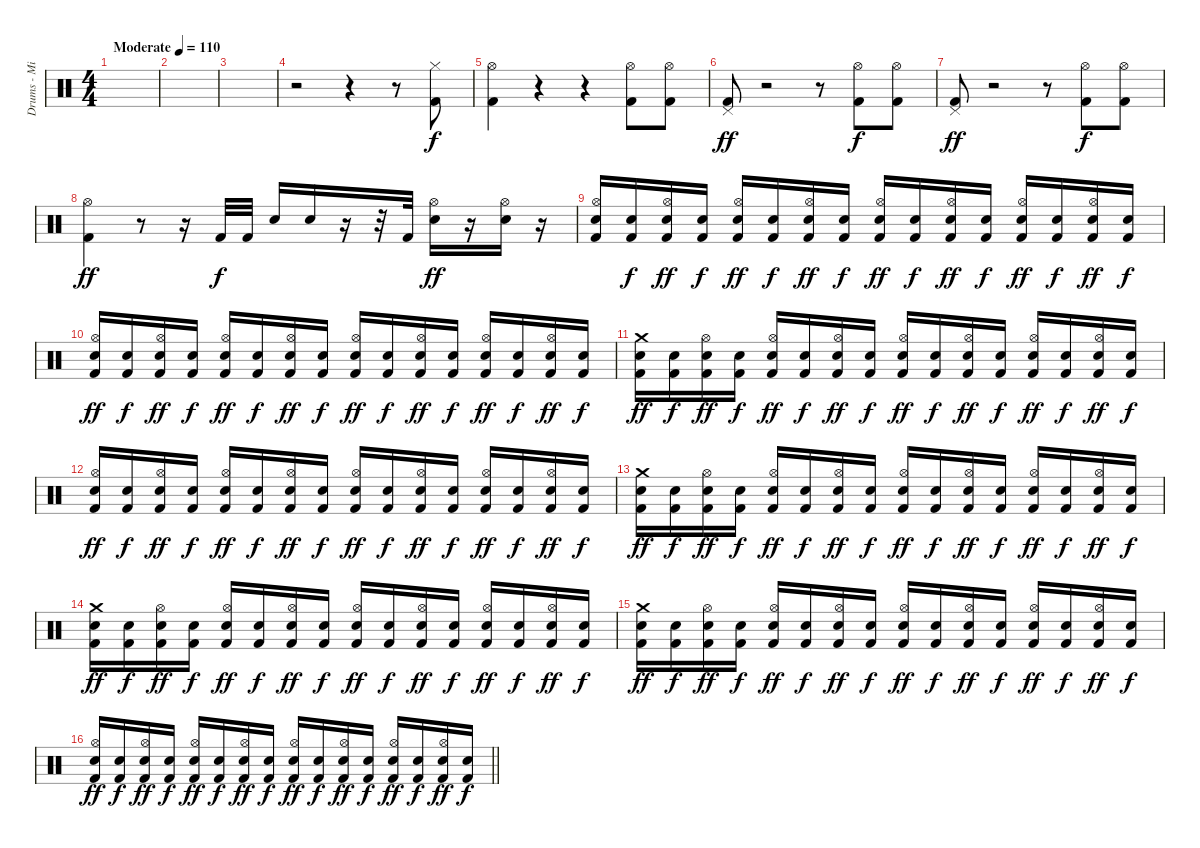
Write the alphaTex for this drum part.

\track ("Drums - Mikko" "Drums - Mi") {instrument percussion}
\staff {score}
\articulation defaults
\ts (4 4)
\tempo (110 "Moderate")
\clef neutral
\ks c
|
|
|
r.2 r.4 r.8 ("Hi-Hat (closed)" "Kick (hit) 2").8 |
("Hi-Hat (open)" "Kick (hit) 2").4{dy f} r.4 r.4 ("Hi-Hat (open)" "Kick (hit) 2").8 ("Hi-Hat (open)" "Kick (hit) 2").8 |
("Pedal Hi-Hat (hit)" "Kick (hit) 2").8{dy ff} r.2 r.8 ("Hi-Hat (open)" "Kick (hit) 2").8{dy f} ("Hi-Hat (open)" "Kick (hit) 2").8 |
("Pedal Hi-Hat (hit)" "Kick (hit) 2").8{dy ff} r.2 r.8 ("Hi-Hat (open)" "Kick (hit) 2").8{dy f} ("Hi-Hat (open)" "Kick (hit) 2").8 |
("Hi-Hat (open)" "Kick (hit) 2").4{dy ff} r.8 r.16 "Kick (hit) 2".32{dy f} "Kick (hit) 2".32 "Snare (hit) 2".16 "Snare (hit) 2".16 r.16 r.32 "Kick (hit) 2".32 ("Hi-Hat (open)" "Snare (hit) 2").16{dy ff} r.16 ("Hi-Hat (open)" "Snare (hit) 2").16 r.16 |
("Hi-Hat (open)" "Snare (hit) 2" "Kick (hit) 2").16{volume 11} ("Snare (hit) 2" "Kick (hit) 2").16{dy f} ("Hi-Hat (open)" "Snare (hit) 2" "Kick (hit) 2").16{dy ff} ("Snare (hit) 2" "Kick (hit) 2").16{dy f} ("Hi-Hat (open)" "Snare (hit) 2" "Kick (hit) 2").16{dy ff} ("Snare (hit) 2" "Kick (hit) 2").16{dy f} ("Hi-Hat (open)" "Snare (hit) 2" "Kick (hit) 2").16{dy ff} ("Snare (hit) 2" "Kick (hit) 2").16{dy f} ("Hi-Hat (open)" "Snare (hit) 2" "Kick (hit) 2").16{dy ff} ("Snare (hit) 2" "Kick (hit) 2").16{dy f} ("Hi-Hat (open)" "Snare (hit) 2" "Kick (hit) 2").16{dy ff} ("Snare (hit) 2" "Kick (hit) 2").16{dy f} ("Hi-Hat (open)" "Snare (hit) 2" "Kick (hit) 2").16{dy ff} ("Snare (hit) 2" "Kick (hit) 2").16{dy f} ("Hi-Hat (open)" "Snare (hit) 2" "Kick (hit) 2").16{dy ff} ("Snare (hit) 2" "Kick (hit) 2").16{dy f} |
("Hi-Hat (open)" "Snare (hit) 2" "Kick (hit) 2").16{dy ff volume 11} ("Snare (hit) 2" "Kick (hit) 2").16{dy f} ("Hi-Hat (open)" "Snare (hit) 2" "Kick (hit) 2").16{dy ff} ("Snare (hit) 2" "Kick (hit) 2").16{dy f} ("Hi-Hat (open)" "Snare (hit) 2" "Kick (hit) 2").16{dy ff} ("Snare (hit) 2" "Kick (hit) 2").16{dy f} ("Hi-Hat (open)" "Snare (hit) 2" "Kick (hit) 2").16{dy ff} ("Snare (hit) 2" "Kick (hit) 2").16{dy f} ("Hi-Hat (open)" "Snare (hit) 2" "Kick (hit) 2").16{dy ff} ("Snare (hit) 2" "Kick (hit) 2").16{dy f} ("Hi-Hat (open)" "Snare (hit) 2" "Kick (hit) 2").16{dy ff} ("Snare (hit) 2" "Kick (hit) 2").16{dy f} ("Hi-Hat (open)" "Snare (hit) 2" "Kick (hit) 2").16{dy ff} ("Snare (hit) 2" "Kick (hit) 2").16{dy f} ("Hi-Hat (open)" "Snare (hit) 2" "Kick (hit) 2").16{dy ff} ("Snare (hit) 2" "Kick (hit) 2").16{dy f} |
("Crash medium (hit)" "Snare (hit) 2" "Kick (hit) 2").16{dy ff volume 11} ("Snare (hit) 2" "Kick (hit) 2").16{dy f} ("Hi-Hat (open)" "Snare (hit) 2" "Kick (hit) 2").16{dy ff} ("Snare (hit) 2" "Kick (hit) 2").16{dy f} ("Hi-Hat (open)" "Snare (hit) 2" "Kick (hit) 2").16{dy ff} ("Snare (hit) 2" "Kick (hit) 2").16{dy f} ("Hi-Hat (open)" "Snare (hit) 2" "Kick (hit) 2").16{dy ff} ("Snare (hit) 2" "Kick (hit) 2").16{dy f} ("Hi-Hat (open)" "Snare (hit) 2" "Kick (hit) 2").16{dy ff} ("Snare (hit) 2" "Kick (hit) 2").16{dy f} ("Hi-Hat (open)" "Snare (hit) 2" "Kick (hit) 2").16{dy ff} ("Snare (hit) 2" "Kick (hit) 2").16{dy f} ("Hi-Hat (open)" "Snare (hit) 2" "Kick (hit) 2").16{dy ff} ("Snare (hit) 2" "Kick (hit) 2").16{dy f} ("Hi-Hat (open)" "Snare (hit) 2" "Kick (hit) 2").16{dy ff} ("Snare (hit) 2" "Kick (hit) 2").16{dy f} |
("Hi-Hat (open)" "Snare (hit) 2" "Kick (hit) 2").16{dy ff volume 11} ("Snare (hit) 2" "Kick (hit) 2").16{dy f} ("Hi-Hat (open)" "Snare (hit) 2" "Kick (hit) 2").16{dy ff} ("Snare (hit) 2" "Kick (hit) 2").16{dy f} ("Hi-Hat (open)" "Snare (hit) 2" "Kick (hit) 2").16{dy ff} ("Snare (hit) 2" "Kick (hit) 2").16{dy f} ("Hi-Hat (open)" "Snare (hit) 2" "Kick (hit) 2").16{dy ff} ("Snare (hit) 2" "Kick (hit) 2").16{dy f} ("Hi-Hat (open)" "Snare (hit) 2" "Kick (hit) 2").16{dy ff} ("Snare (hit) 2" "Kick (hit) 2").16{dy f} ("Hi-Hat (open)" "Snare (hit) 2" "Kick (hit) 2").16{dy ff} ("Snare (hit) 2" "Kick (hit) 2").16{dy f} ("Hi-Hat (open)" "Snare (hit) 2" "Kick (hit) 2").16{dy ff} ("Snare (hit) 2" "Kick (hit) 2").16{dy f} ("Hi-Hat (open)" "Snare (hit) 2" "Kick (hit) 2").16{dy ff} ("Snare (hit) 2" "Kick (hit) 2").16{dy f} |
("Crash medium (hit)" "Snare (hit) 2" "Kick (hit) 2").16{dy ff volume 11} ("Snare (hit) 2" "Kick (hit) 2").16{dy f} ("Hi-Hat (open)" "Snare (hit) 2" "Kick (hit) 2").16{dy ff} ("Snare (hit) 2" "Kick (hit) 2").16{dy f} ("Hi-Hat (open)" "Snare (hit) 2" "Kick (hit) 2").16{dy ff} ("Snare (hit) 2" "Kick (hit) 2").16{dy f} ("Hi-Hat (open)" "Snare (hit) 2" "Kick (hit) 2").16{dy ff} ("Snare (hit) 2" "Kick (hit) 2").16{dy f} ("Hi-Hat (open)" "Snare (hit) 2" "Kick (hit) 2").16{dy ff} ("Snare (hit) 2" "Kick (hit) 2").16{dy f} ("Hi-Hat (open)" "Snare (hit) 2" "Kick (hit) 2").16{dy ff} ("Snare (hit) 2" "Kick (hit) 2").16{dy f} ("Hi-Hat (open)" "Snare (hit) 2" "Kick (hit) 2").16{dy ff} ("Snare (hit) 2" "Kick (hit) 2").16{dy f} ("Hi-Hat (open)" "Snare (hit) 2" "Kick (hit) 2").16{dy ff} ("Snare (hit) 2" "Kick (hit) 2").16{dy f} |
("Crash medium (hit)" "Snare (hit) 2" "Kick (hit) 2").16{dy ff volume 11} ("Snare (hit) 2" "Kick (hit) 2").16{dy f} ("Hi-Hat (open)" "Snare (hit) 2" "Kick (hit) 2").16{dy ff} ("Snare (hit) 2" "Kick (hit) 2").16{dy f} ("Hi-Hat (open)" "Snare (hit) 2" "Kick (hit) 2").16{dy ff} ("Snare (hit) 2" "Kick (hit) 2").16{dy f} ("Hi-Hat (open)" "Snare (hit) 2" "Kick (hit) 2").16{dy ff} ("Snare (hit) 2" "Kick (hit) 2").16{dy f} ("Hi-Hat (open)" "Snare (hit) 2" "Kick (hit) 2").16{dy ff} ("Snare (hit) 2" "Kick (hit) 2").16{dy f} ("Hi-Hat (open)" "Snare (hit) 2" "Kick (hit) 2").16{dy ff} ("Snare (hit) 2" "Kick (hit) 2").16{dy f} ("Hi-Hat (open)" "Snare (hit) 2" "Kick (hit) 2").16{dy ff} ("Snare (hit) 2" "Kick (hit) 2").16{dy f} ("Hi-Hat (open)" "Snare (hit) 2" "Kick (hit) 2").16{dy ff} ("Snare (hit) 2" "Kick (hit) 2").16{dy f} |
("Crash medium (hit)" "Snare (hit) 2" "Kick (hit) 2").16{dy ff volume 11} ("Snare (hit) 2" "Kick (hit) 2").16{dy f} ("Hi-Hat (open)" "Snare (hit) 2" "Kick (hit) 2").16{dy ff} ("Snare (hit) 2" "Kick (hit) 2").16{dy f} ("Hi-Hat (open)" "Snare (hit) 2" "Kick (hit) 2").16{dy ff} ("Snare (hit) 2" "Kick (hit) 2").16{dy f} ("Hi-Hat (open)" "Snare (hit) 2" "Kick (hit) 2").16{dy ff} ("Snare (hit) 2" "Kick (hit) 2").16{dy f} ("Hi-Hat (open)" "Snare (hit) 2" "Kick (hit) 2").16{dy ff} ("Snare (hit) 2" "Kick (hit) 2").16{dy f} ("Hi-Hat (open)" "Snare (hit) 2" "Kick (hit) 2").16{dy ff} ("Snare (hit) 2" "Kick (hit) 2").16{dy f} ("Hi-Hat (open)" "Snare (hit) 2" "Kick (hit) 2").16{dy ff} ("Snare (hit) 2" "Kick (hit) 2").16{dy f} ("Hi-Hat (open)" "Snare (hit) 2" "Kick (hit) 2").16{dy ff} ("Snare (hit) 2" "Kick (hit) 2").16{dy f} |
\barLineRight lightlight
("Hi-Hat (open)" "Snare (hit) 2" "Kick (hit) 2").16{dy ff volume 11} ("Snare (hit) 2" "Kick (hit) 2").16{dy f} ("Hi-Hat (open)" "Snare (hit) 2" "Kick (hit) 2").16{dy ff} ("Snare (hit) 2" "Kick (hit) 2").16{dy f} ("Hi-Hat (open)" "Snare (hit) 2" "Kick (hit) 2").16{dy ff} ("Snare (hit) 2" "Kick (hit) 2").16{dy f} ("Hi-Hat (open)" "Snare (hit) 2" "Kick (hit) 2").16{dy ff} ("Snare (hit) 2" "Kick (hit) 2").16{dy f} ("Hi-Hat (open)" "Snare (hit) 2" "Kick (hit) 2").16{dy ff} ("Snare (hit) 2" "Kick (hit) 2").16{dy f} ("Hi-Hat (open)" "Snare (hit) 2" "Kick (hit) 2").16{dy ff} ("Snare (hit) 2" "Kick (hit) 2").16{dy f} ("Hi-Hat (open)" "Snare (hit) 2" "Kick (hit) 2").16{dy ff} ("Snare (hit) 2" "Kick (hit) 2").16{dy f} ("Hi-Hat (open)" "Snare (hit) 2" "Kick (hit) 2").16{dy ff} ("Snare (hit) 2" "Kick (hit) 2").16{dy f}
